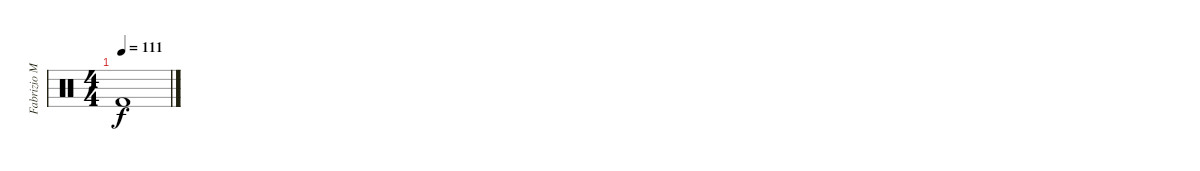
\track ("Fabrizio Moretti" "Fabrizio M") {instrument percussion}
\staff {score}
\articulation defaults
\ts (4 4)
\tempo 111
\clef neutral
\ks c "Kick (hit) 2".1{dy f}
